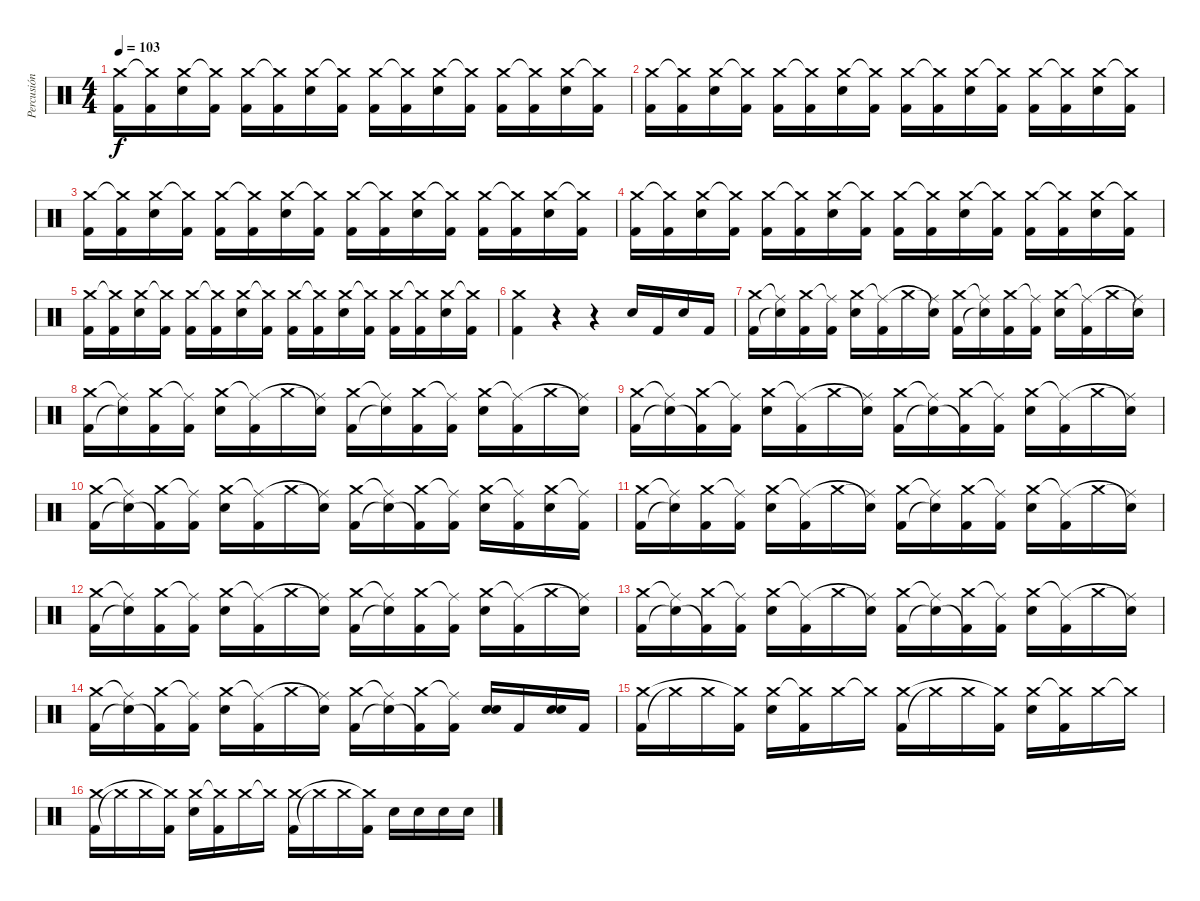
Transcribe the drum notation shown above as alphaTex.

\track ("Percusión" "Percusión") {instrument percussion}
\staff {score}
\articulation defaults
\ts (4 4)
\tempo 103
\clef neutral
\ks c
("Kick (hit) 2" "Crash medium (hit)").16{dy f} ("Kick (hit) 2" "Crash medium (hit)"{t}).16 ("Electric Snare (hit)" "Crash medium (hit)").16 ("Kick (hit) 2" "Crash medium (hit)"{t}).16 ("Kick (hit) 2" "Crash medium (hit)").16 ("Kick (hit) 2" "Crash medium (hit)"{t}).16 ("Electric Snare (hit)" "Crash medium (hit)").16 ("Kick (hit) 2" "Crash medium (hit)"{t}).16 ("Kick (hit) 2" "Crash medium (hit)").16 ("Kick (hit) 2" "Crash medium (hit)"{t}).16 ("Electric Snare (hit)" "Crash medium (hit)").16 ("Kick (hit) 2" "Crash medium (hit)"{t}).16 ("Kick (hit) 2" "Crash medium (hit)").16 ("Kick (hit) 2" "Crash medium (hit)"{t}).16 ("Electric Snare (hit)" "Crash medium (hit)").16 ("Kick (hit) 2" "Crash medium (hit)"{t}).16 |
("Kick (hit) 2" "Crash medium (hit)").16 ("Kick (hit) 2" "Crash medium (hit)"{t}).16 ("Electric Snare (hit)" "Crash medium (hit)").16 ("Kick (hit) 2" "Crash medium (hit)"{t}).16 ("Kick (hit) 2" "Crash medium (hit)").16 ("Kick (hit) 2" "Crash medium (hit)"{t}).16 ("Electric Snare (hit)" "Crash medium (hit)").16 ("Kick (hit) 2" "Crash medium (hit)"{t}).16 ("Kick (hit) 2" "Crash medium (hit)").16 ("Kick (hit) 2" "Crash medium (hit)"{t}).16 ("Electric Snare (hit)" "Crash medium (hit)").16 ("Kick (hit) 2" "Crash medium (hit)"{t}).16 ("Kick (hit) 2" "Crash medium (hit)").16 ("Kick (hit) 2" "Crash medium (hit)"{t}).16 ("Electric Snare (hit)" "Crash medium (hit)").16 ("Kick (hit) 2" "Crash medium (hit)"{t}).16 |
("Kick (hit) 2" "Crash medium (hit)").16 ("Kick (hit) 2" "Crash medium (hit)"{t}).16 ("Electric Snare (hit)" "Crash medium (hit)").16 ("Kick (hit) 2" "Crash medium (hit)"{t}).16 ("Kick (hit) 2" "Crash medium (hit)").16 ("Kick (hit) 2" "Crash medium (hit)"{t}).16 ("Electric Snare (hit)" "Crash medium (hit)").16 ("Kick (hit) 2" "Crash medium (hit)"{t}).16 ("Kick (hit) 2" "Crash medium (hit)").16 ("Kick (hit) 2" "Crash medium (hit)"{t}).16 ("Electric Snare (hit)" "Crash medium (hit)").16 ("Kick (hit) 2" "Crash medium (hit)"{t}).16 ("Kick (hit) 2" "Crash medium (hit)").16 ("Kick (hit) 2" "Crash medium (hit)"{t}).16 ("Electric Snare (hit)" "Crash medium (hit)").16 ("Kick (hit) 2" "Crash medium (hit)"{t}).16 |
("Kick (hit) 2" "Crash medium (hit)").16 ("Kick (hit) 2" "Crash medium (hit)"{t}).16 ("Electric Snare (hit)" "Crash medium (hit)").16 ("Kick (hit) 2" "Crash medium (hit)"{t}).16 ("Kick (hit) 2" "Crash medium (hit)").16 ("Kick (hit) 2" "Crash medium (hit)"{t}).16 ("Electric Snare (hit)" "Crash medium (hit)").16 ("Kick (hit) 2" "Crash medium (hit)"{t}).16 ("Kick (hit) 2" "Crash medium (hit)").16 ("Kick (hit) 2" "Crash medium (hit)"{t}).16 ("Electric Snare (hit)" "Crash medium (hit)").16 ("Kick (hit) 2" "Crash medium (hit)"{t}).16 ("Kick (hit) 2" "Crash medium (hit)").16 ("Kick (hit) 2" "Crash medium (hit)"{t}).16 ("Electric Snare (hit)" "Crash medium (hit)").16 ("Kick (hit) 2" "Crash medium (hit)"{t}).16 |
("Kick (hit) 2" "Crash medium (hit)").16 ("Kick (hit) 2" "Crash medium (hit)"{t}).16 ("Electric Snare (hit)" "Crash medium (hit)").16 ("Kick (hit) 2" "Crash medium (hit)"{t}).16 ("Kick (hit) 2" "Crash medium (hit)").16 ("Kick (hit) 2" "Crash medium (hit)"{t}).16 ("Electric Snare (hit)" "Crash medium (hit)").16 ("Kick (hit) 2" "Crash medium (hit)"{t}).16 ("Kick (hit) 2" "Crash medium (hit)").16 ("Kick (hit) 2" "Crash medium (hit)"{t}).16 ("Electric Snare (hit)" "Crash medium (hit)").16 ("Kick (hit) 2" "Crash medium (hit)"{t}).16 ("Kick (hit) 2" "Crash medium (hit)").16 ("Kick (hit) 2" "Crash medium (hit)"{t}).16 ("Electric Snare (hit)" "Crash medium (hit)").16 ("Kick (hit) 2" "Crash medium (hit)"{t}).16 |
("Crash medium (hit)" "Kick (hit) 2").4 r.4 r.4 "Electric Snare (hit)".16 "Kick (hit) 2".16 "Snare (hit) 2".16 "Kick (hit) 2".16 |
("Kick (hit) 2" "Crash medium (hit)").16 ("Snare (hit)"{t} "Ride (middle)"{t}).16 ("Kick (hit) 2" "Crash medium (hit)").16 ("Kick (hit) 2" "Ride (middle)"{t}).16 ("Electric Snare (hit)" "Crash medium (hit)").16 ("Kick (hit) 2" "Ride (middle)"{t}).16 "Crash medium (hit)".16 ("Snare (hit)"{t} "Ride (middle)"{t}).16 ("Kick (hit) 2" "Crash medium (hit)").16 ("Snare (hit)"{t} "Ride (middle)"{t}).16 ("Kick (hit) 2" "Crash medium (hit)").16 ("Kick (hit) 2" "Ride (middle)"{t}).16 ("Electric Snare (hit)" "Crash medium (hit)").16 ("Kick (hit) 2" "Ride (middle)"{t}).16 "Crash medium (hit)".16 ("Snare (hit)"{t} "Ride (middle)"{t}).16 |
("Kick (hit) 2" "Crash medium (hit)").16 ("Snare (hit)"{t} "Ride (middle)"{t}).16 ("Kick (hit) 2" "Crash medium (hit)").16 ("Kick (hit) 2" "Ride (middle)"{t}).16 ("Electric Snare (hit)" "Crash medium (hit)").16 ("Kick (hit) 2" "Ride (middle)"{t}).16 "Crash medium (hit)".16 ("Snare (hit)"{t} "Ride (middle)"{t}).16 ("Kick (hit) 2" "Crash medium (hit)").16 ("Snare (hit)"{t} "Ride (middle)"{t}).16 ("Kick (hit) 2" "Crash medium (hit)").16 ("Kick (hit) 2" "Ride (middle)"{t}).16 ("Electric Snare (hit)" "Crash medium (hit)").16 ("Kick (hit) 2" "Ride (middle)"{t}).16 "Crash medium (hit)".16 ("Snare (hit)"{t} "Ride (middle)"{t}).16 |
("Kick (hit) 2" "Crash medium (hit)").16 ("Snare (hit)"{t} "Ride (middle)"{t}).16 ("Kick (hit) 2"{t} "Crash medium (hit)").16 ("Kick (hit) 2" "Ride (middle)"{t}).16 ("Electric Snare (hit)" "Crash medium (hit)").16 ("Kick (hit) 2" "Ride (middle)"{t}).16 "Crash medium (hit)".16 ("Snare (hit)"{t} "Ride (middle)"{t}).16 ("Kick (hit) 2" "Crash medium (hit)").16 ("Snare (hit)"{t} "Ride (middle)"{t}).16 ("Kick (hit) 2"{t} "Crash medium (hit)").16 ("Kick (hit) 2" "Ride (middle)"{t}).16 ("Electric Snare (hit)" "Crash medium (hit)").16 ("Kick (hit) 2" "Ride (middle)"{t}).16 "Crash medium (hit)".16 ("Snare (hit)"{t} "Ride (middle)"{t}).16 |
("Kick (hit) 2" "Crash medium (hit)").16 ("Snare (hit)"{t} "Ride (middle)"{t}).16 ("Kick (hit) 2"{t} "Crash medium (hit)").16 ("Kick (hit) 2" "Ride (middle)"{t}).16 ("Electric Snare (hit)" "Crash medium (hit)").16 ("Kick (hit) 2" "Ride (middle)"{t}).16 "Crash medium (hit)".16 ("Snare (hit)"{t} "Ride (middle)"{t}).16 ("Kick (hit) 2" "Crash medium (hit)").16 ("Snare (hit)"{t} "Ride (middle)"{t}).16 ("Kick (hit) 2"{t} "Crash medium (hit)").16 ("Kick (hit) 2" "Ride (middle)"{t}).16 ("Electric Snare (hit)" "Crash medium (hit)").16 ("Kick (hit) 2" "Ride (middle)"{t}).16 ("Electric Snare (hit)" "Crash medium (hit)").16 ("Kick (hit) 2" "Ride (middle)"{t}).16 |
("Kick (hit) 2" "Crash medium (hit)").16 ("Snare (hit)"{t} "Ride (middle)"{t}).16 ("Kick (hit) 2" "Crash medium (hit)").16 ("Kick (hit) 2" "Ride (middle)"{t}).16 ("Electric Snare (hit)" "Crash medium (hit)").16 ("Kick (hit) 2" "Ride (middle)"{t}).16 "Crash medium (hit)".16 ("Snare (hit)"{t} "Ride (middle)"{t}).16 ("Kick (hit) 2" "Crash medium (hit)").16 ("Snare (hit)"{t} "Ride (middle)"{t}).16 ("Kick (hit) 2" "Crash medium (hit)").16 ("Kick (hit) 2" "Ride (middle)"{t}).16 ("Electric Snare (hit)" "Crash medium (hit)").16 ("Kick (hit) 2" "Ride (middle)"{t}).16 "Crash medium (hit)".16 ("Snare (hit)"{t} "Ride (middle)"{t}).16 |
("Kick (hit) 2" "Crash medium (hit)").16 ("Snare (hit)"{t} "Ride (middle)"{t}).16 ("Kick (hit) 2" "Crash medium (hit)").16 ("Kick (hit) 2" "Ride (middle)"{t}).16 ("Electric Snare (hit)" "Crash medium (hit)").16 ("Kick (hit) 2" "Ride (middle)"{t}).16 "Crash medium (hit)".16 ("Snare (hit)"{t} "Ride (middle)"{t}).16 ("Kick (hit) 2" "Crash medium (hit)").16 ("Snare (hit)"{t} "Ride (middle)"{t}).16 ("Kick (hit) 2" "Crash medium (hit)").16 ("Kick (hit) 2" "Ride (middle)"{t}).16 ("Electric Snare (hit)" "Crash medium (hit)").16 ("Kick (hit) 2" "Ride (middle)"{t}).16 "Crash medium (hit)".16 ("Snare (hit)"{t} "Ride (middle)"{t}).16 |
("Kick (hit) 2" "Crash medium (hit)").16 ("Snare (hit)"{t} "Ride (middle)"{t}).16 ("Kick (hit) 2"{t} "Crash medium (hit)").16 ("Kick (hit) 2" "Ride (middle)"{t}).16 ("Electric Snare (hit)" "Crash medium (hit)").16 ("Kick (hit) 2" "Ride (middle)"{t}).16 "Crash medium (hit)".16 ("Snare (hit)"{t} "Ride (middle)"{t}).16 ("Kick (hit) 2" "Crash medium (hit)").16 ("Snare (hit)"{t} "Ride (middle)"{t}).16 ("Kick (hit) 2"{t} "Crash medium (hit)").16 ("Kick (hit) 2" "Ride (middle)"{t}).16 ("Electric Snare (hit)" "Crash medium (hit)").16 ("Kick (hit) 2" "Ride (middle)"{t}).16 "Crash medium (hit)".16 ("Snare (hit)"{t} "Ride (middle)"{t}).16 |
("Kick (hit) 2" "Crash medium (hit)").16 ("Snare (hit)"{t} "Ride (middle)"{t}).16 ("Kick (hit) 2"{t} "Crash medium (hit)").16 ("Kick (hit) 2" "Ride (middle)"{t}).16 ("Electric Snare (hit)" "Crash medium (hit)").16 ("Kick (hit) 2" "Ride (middle)"{t}).16 "Crash medium (hit)".16 ("Snare (hit)"{t} "Ride (middle)"{t}).16 ("Kick (hit) 2" "Crash medium (hit)").16 ("Snare (hit)"{t} "Ride (middle)"{t}).16 ("Kick (hit) 2"{t} "Crash medium (hit)").16 ("Kick (hit) 2" "Ride (middle)"{t}).16 ("Electric Snare (hit)" "Electric Snare (hit)").16 "Kick (hit) 2".16 ("Electric Snare (hit)" "Electric Snare (hit)").16 "Kick (hit) 2".16 |
("Kick (hit) 2" "Crash medium (hit)").16 "Crash medium (hit)"{t}.16 "Crash medium (hit)".16 ("Kick (hit) 2" "Crash medium (hit)"{t}).16 ("Electric Snare (hit)" "Crash medium (hit)").16 ("Kick (hit) 2" "Crash medium (hit)"{t}).16 "Crash medium (hit)".16 "Crash medium (hit)"{t}.16 ("Kick (hit) 2" "Crash medium (hit)").16 "Crash medium (hit)"{t}.16 "Crash medium (hit)".16 ("Kick (hit) 2" "Crash medium (hit)"{t}).16 ("Electric Snare (hit)" "Crash medium (hit)").16 ("Kick (hit) 2" "Crash medium (hit)"{t}).16 "Crash medium (hit)".16 "Crash medium (hit)"{t}.16 |
("Kick (hit) 2" "Crash medium (hit)").16 "Crash medium (hit)"{t}.16 "Crash medium (hit)".16 ("Kick (hit) 2" "Crash medium (hit)"{t}).16 ("Electric Snare (hit)" "Crash medium (hit)").16 ("Kick (hit) 2" "Crash medium (hit)"{t}).16 "Crash medium (hit)".16 "Crash medium (hit)"{t}.16 ("Kick (hit) 2" "Crash medium (hit)").16 "Crash medium (hit)"{t}.16 "Crash medium (hit)".16 ("Kick (hit) 2" "Crash medium (hit)"{t}).16 "Electric Snare (hit)".16 "Electric Snare (hit)".16 "Electric Snare (hit)".16 "Electric Snare (hit)".16
